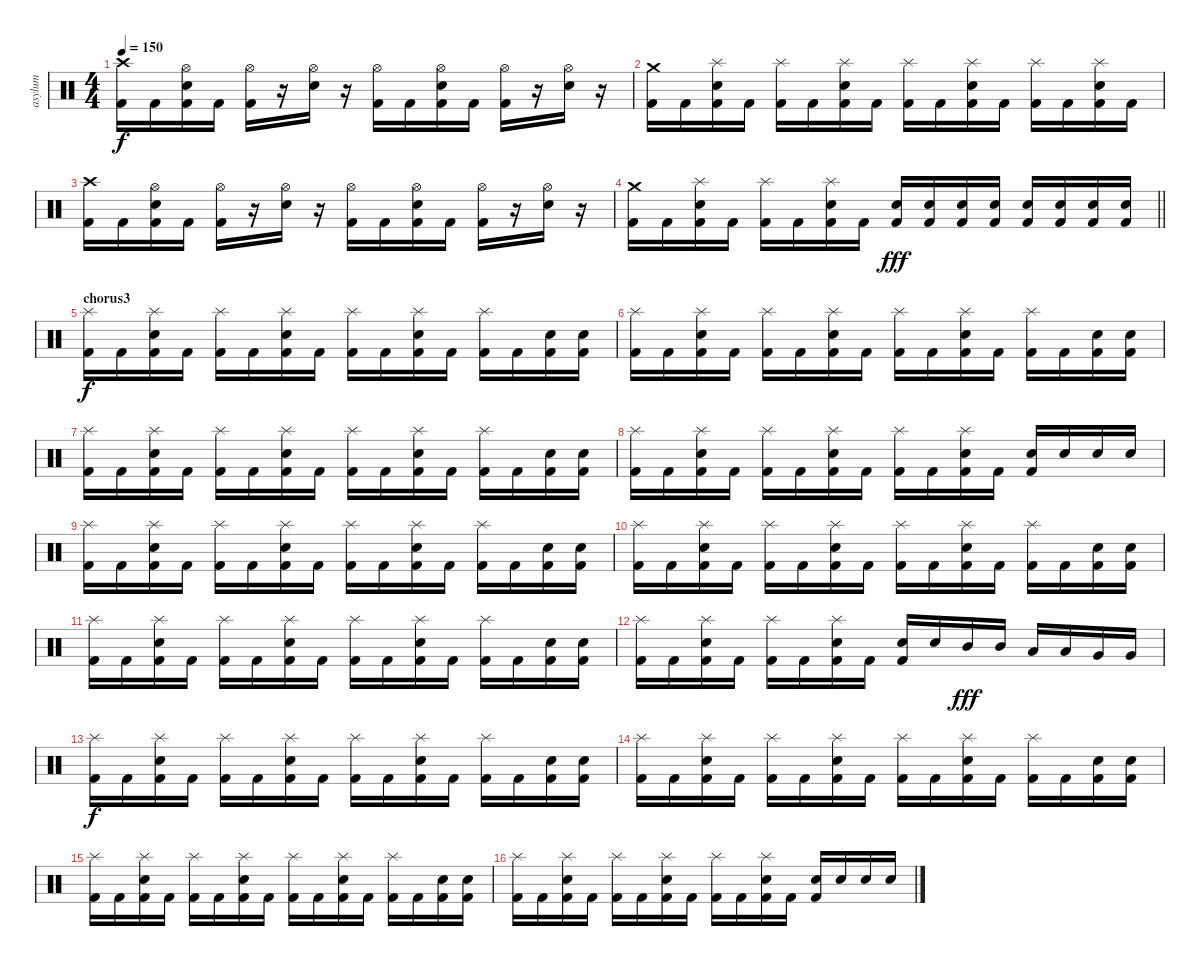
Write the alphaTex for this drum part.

\track ("asylum" "asylum") {instrument percussion}
\staff {score}
\articulation defaults
\ts (4 4)
\tempo 150
\clef neutral
\ks c
("Crash high (hit)" "Kick (hit) 2").16{dy f} "Kick (hit) 2".16 ("Hi-Hat (open)" "Electric Snare (hit)" "Kick (hit) 2").16 "Kick (hit) 2".16 ("Hi-Hat (open)" "Kick (hit) 2").16 r.16 ("Hi-Hat (open)" "Electric Snare (hit)").16 r.16 ("Hi-Hat (open)" "Kick (hit) 2").16 "Kick (hit) 2".16 ("Hi-Hat (open)" "Electric Snare (hit)" "Kick (hit) 2").16 "Kick (hit) 2".16 ("Hi-Hat (open)" "Kick (hit) 2").16 r.16 ("Hi-Hat (open)" "Electric Snare (hit)").16 r.16 |
("Crash medium (hit)" "Kick (hit) 2").16 "Kick (hit) 2".16 ("Splash (hit)" "Electric Snare (hit)" "Kick (hit) 2").16 "Kick (hit) 2".16 ("Splash (hit)" "Kick (hit) 2").16 "Kick (hit) 2".16 ("Splash (hit)" "Electric Snare (hit)" "Kick (hit) 2").16 "Kick (hit) 2".16 ("Splash (hit)" "Kick (hit) 2").16 "Kick (hit) 2".16 ("Splash (hit)" "Electric Snare (hit)" "Kick (hit) 2").16 "Kick (hit) 2".16 ("Splash (hit)" "Kick (hit) 2").16 "Kick (hit) 2".16 ("Splash (hit)" "Electric Snare (hit)" "Kick (hit) 2").16 "Kick (hit) 2".16 |
("Crash high (hit)" "Kick (hit) 2").16 "Kick (hit) 2".16 ("Hi-Hat (open)" "Electric Snare (hit)" "Kick (hit) 2").16 "Kick (hit) 2".16 ("Hi-Hat (open)" "Kick (hit) 2").16 r.16 ("Hi-Hat (open)" "Electric Snare (hit)").16 r.16 ("Hi-Hat (open)" "Kick (hit) 2").16 "Kick (hit) 2".16 ("Hi-Hat (open)" "Electric Snare (hit)" "Kick (hit) 2").16 "Kick (hit) 2".16 ("Hi-Hat (open)" "Kick (hit) 2").16 r.16 ("Hi-Hat (open)" "Electric Snare (hit)").16 r.16 |
\barLineRight lightlight
("Crash medium (hit)" "Kick (hit) 2").16 "Kick (hit) 2".16 ("Splash (hit)" "Electric Snare (hit)" "Kick (hit) 2").16 "Kick (hit) 2".16 ("Splash (hit)" "Kick (hit) 2").16 "Kick (hit) 2".16 ("Splash (hit)" "Electric Snare (hit)" "Kick (hit) 2").16 "Kick (hit) 2".16 ("Electric Snare (hit)" "Kick (hit) 2").16{dy fff} ("Electric Snare (hit)" "Kick (hit) 2").16 ("Electric Snare (hit)" "Kick (hit) 2").16 ("Electric Snare (hit)" "Kick (hit) 2").16 ("Electric Snare (hit)" "Kick (hit) 2").16 ("Electric Snare (hit)" "Kick (hit) 2").16 ("Electric Snare (hit)" "Kick (hit) 2").16 ("Electric Snare (hit)" "Kick (hit) 2").16 |
\section ("" "chorus3")
("Splash (hit)" "Kick (hit) 2").16{dy f} "Kick (hit) 2".16 ("Splash (hit)" "Electric Snare (hit)" "Kick (hit) 2").16 "Kick (hit) 2".16 ("Splash (hit)" "Kick (hit) 2").16 "Kick (hit) 2".16 ("Splash (hit)" "Electric Snare (hit)" "Kick (hit) 2").16 "Kick (hit) 2".16 ("Splash (hit)" "Kick (hit) 2").16 "Kick (hit) 2".16 ("Splash (hit)" "Electric Snare (hit)" "Kick (hit) 2").16 "Kick (hit) 2".16 ("Splash (hit)" "Kick (hit) 2").16 "Kick (hit) 2".16 ("Electric Snare (hit)" "Kick (hit) 2").16 ("Electric Snare (hit)" "Kick (hit) 2").16 |
("Splash (hit)" "Kick (hit) 2").16 "Kick (hit) 2".16 ("Splash (hit)" "Electric Snare (hit)" "Kick (hit) 2").16 "Kick (hit) 2".16 ("Splash (hit)" "Kick (hit) 2").16 "Kick (hit) 2".16 ("Splash (hit)" "Electric Snare (hit)" "Kick (hit) 2").16 "Kick (hit) 2".16 ("Splash (hit)" "Kick (hit) 2").16 "Kick (hit) 2".16 ("Splash (hit)" "Electric Snare (hit)" "Kick (hit) 2").16 "Kick (hit) 2".16 ("Splash (hit)" "Kick (hit) 2").16 "Kick (hit) 2".16 ("Electric Snare (hit)" "Kick (hit) 2").16 ("Electric Snare (hit)" "Kick (hit) 2").16 |
("Splash (hit)" "Kick (hit) 2").16 "Kick (hit) 2".16 ("Splash (hit)" "Electric Snare (hit)" "Kick (hit) 2").16 "Kick (hit) 2".16 ("Splash (hit)" "Kick (hit) 2").16 "Kick (hit) 2".16 ("Splash (hit)" "Electric Snare (hit)" "Kick (hit) 2").16 "Kick (hit) 2".16 ("Splash (hit)" "Kick (hit) 2").16 "Kick (hit) 2".16 ("Splash (hit)" "Electric Snare (hit)" "Kick (hit) 2").16 "Kick (hit) 2".16 ("Splash (hit)" "Kick (hit) 2").16 "Kick (hit) 2".16 ("Electric Snare (hit)" "Kick (hit) 2").16 ("Electric Snare (hit)" "Kick (hit) 2").16 |
("Splash (hit)" "Kick (hit) 2").16 "Kick (hit) 2".16 ("Splash (hit)" "Electric Snare (hit)" "Kick (hit) 2").16 "Kick (hit) 2".16 ("Splash (hit)" "Kick (hit) 2").16 "Kick (hit) 2".16 ("Splash (hit)" "Electric Snare (hit)" "Kick (hit) 2").16 "Kick (hit) 2".16 ("Splash (hit)" "Kick (hit) 2").16 "Kick (hit) 2".16 ("Splash (hit)" "Electric Snare (hit)" "Kick (hit) 2").16 "Kick (hit) 2".16 ("Electric Snare (hit)" "Kick (hit) 2").16 "Electric Snare (hit)".16 "Electric Snare (hit)".16 "Electric Snare (hit)".16 |
("Splash (hit)" "Kick (hit) 2").16 "Kick (hit) 2".16 ("Splash (hit)" "Electric Snare (hit)" "Kick (hit) 2").16 "Kick (hit) 2".16 ("Splash (hit)" "Kick (hit) 2").16 "Kick (hit) 2".16 ("Splash (hit)" "Electric Snare (hit)" "Kick (hit) 2").16 "Kick (hit) 2".16 ("Splash (hit)" "Kick (hit) 2").16 "Kick (hit) 2".16 ("Splash (hit)" "Electric Snare (hit)" "Kick (hit) 2").16 "Kick (hit) 2".16 ("Splash (hit)" "Kick (hit) 2").16 "Kick (hit) 2".16 ("Electric Snare (hit)" "Kick (hit) 2").16 ("Electric Snare (hit)" "Kick (hit) 2").16 |
("Splash (hit)" "Kick (hit) 2").16 "Kick (hit) 2".16 ("Splash (hit)" "Electric Snare (hit)" "Kick (hit) 2").16 "Kick (hit) 2".16 ("Splash (hit)" "Kick (hit) 2").16 "Kick (hit) 2".16 ("Splash (hit)" "Electric Snare (hit)" "Kick (hit) 2").16 "Kick (hit) 2".16 ("Splash (hit)" "Kick (hit) 2").16 "Kick (hit) 2".16 ("Splash (hit)" "Electric Snare (hit)" "Kick (hit) 2").16 "Kick (hit) 2".16 ("Splash (hit)" "Kick (hit) 2").16 "Kick (hit) 2".16 ("Electric Snare (hit)" "Kick (hit) 2").16 ("Electric Snare (hit)" "Kick (hit) 2").16 |
("Splash (hit)" "Kick (hit) 2").16 "Kick (hit) 2".16 ("Splash (hit)" "Electric Snare (hit)" "Kick (hit) 2").16 "Kick (hit) 2".16 ("Splash (hit)" "Kick (hit) 2").16 "Kick (hit) 2".16 ("Splash (hit)" "Electric Snare (hit)" "Kick (hit) 2").16 "Kick (hit) 2".16 ("Splash (hit)" "Kick (hit) 2").16 "Kick (hit) 2".16 ("Splash (hit)" "Electric Snare (hit)" "Kick (hit) 2").16 "Kick (hit) 2".16 ("Splash (hit)" "Kick (hit) 2").16 "Kick (hit) 2".16 ("Electric Snare (hit)" "Kick (hit) 2").16 ("Electric Snare (hit)" "Kick (hit) 2").16 |
("Splash (hit)" "Kick (hit) 2").16 "Kick (hit) 2".16 ("Splash (hit)" "Electric Snare (hit)" "Kick (hit) 2").16 "Kick (hit) 2".16 ("Splash (hit)" "Kick (hit) 2").16 "Kick (hit) 2".16 ("Splash (hit)" "Electric Snare (hit)" "Kick (hit) 2").16 "Kick (hit) 2".16 ("Electric Snare (hit)" "Kick (hit) 2").16 "Electric Snare (hit)".16 "Mid Tom (hit)".16{dy fff} "Mid Tom (hit)".16 "Low Tom (hit)".16 "Low Tom (hit)".16 "Very Low Tom (hit)".16 "Very Low Tom (hit)".16 |
("Splash (hit)" "Kick (hit) 2").16{dy f} "Kick (hit) 2".16 ("Splash (hit)" "Electric Snare (hit)" "Kick (hit) 2").16 "Kick (hit) 2".16 ("Splash (hit)" "Kick (hit) 2").16 "Kick (hit) 2".16 ("Splash (hit)" "Electric Snare (hit)" "Kick (hit) 2").16 "Kick (hit) 2".16 ("Splash (hit)" "Kick (hit) 2").16 "Kick (hit) 2".16 ("Splash (hit)" "Electric Snare (hit)" "Kick (hit) 2").16 "Kick (hit) 2".16 ("Splash (hit)" "Kick (hit) 2").16 "Kick (hit) 2".16 ("Electric Snare (hit)" "Kick (hit) 2").16 ("Electric Snare (hit)" "Kick (hit) 2").16 |
("Splash (hit)" "Kick (hit) 2").16 "Kick (hit) 2".16 ("Splash (hit)" "Electric Snare (hit)" "Kick (hit) 2").16 "Kick (hit) 2".16 ("Splash (hit)" "Kick (hit) 2").16 "Kick (hit) 2".16 ("Splash (hit)" "Electric Snare (hit)" "Kick (hit) 2").16 "Kick (hit) 2".16 ("Splash (hit)" "Kick (hit) 2").16 "Kick (hit) 2".16 ("Splash (hit)" "Electric Snare (hit)" "Kick (hit) 2").16 "Kick (hit) 2".16 ("Splash (hit)" "Kick (hit) 2").16 "Kick (hit) 2".16 ("Electric Snare (hit)" "Kick (hit) 2").16 ("Electric Snare (hit)" "Kick (hit) 2").16 |
("Splash (hit)" "Kick (hit) 2").16 "Kick (hit) 2".16 ("Splash (hit)" "Electric Snare (hit)" "Kick (hit) 2").16 "Kick (hit) 2".16 ("Splash (hit)" "Kick (hit) 2").16 "Kick (hit) 2".16 ("Splash (hit)" "Electric Snare (hit)" "Kick (hit) 2").16 "Kick (hit) 2".16 ("Splash (hit)" "Kick (hit) 2").16 "Kick (hit) 2".16 ("Splash (hit)" "Electric Snare (hit)" "Kick (hit) 2").16 "Kick (hit) 2".16 ("Splash (hit)" "Kick (hit) 2").16 "Kick (hit) 2".16 ("Electric Snare (hit)" "Kick (hit) 2").16 ("Electric Snare (hit)" "Kick (hit) 2").16 |
("Splash (hit)" "Kick (hit) 2").16 "Kick (hit) 2".16 ("Splash (hit)" "Electric Snare (hit)" "Kick (hit) 2").16 "Kick (hit) 2".16 ("Splash (hit)" "Kick (hit) 2").16 "Kick (hit) 2".16 ("Splash (hit)" "Electric Snare (hit)" "Kick (hit) 2").16 "Kick (hit) 2".16 ("Splash (hit)" "Kick (hit) 2").16 "Kick (hit) 2".16 ("Splash (hit)" "Electric Snare (hit)" "Kick (hit) 2").16 "Kick (hit) 2".16 ("Electric Snare (hit)" "Kick (hit) 2").16 "Electric Snare (hit)".16 "Electric Snare (hit)".16 "Electric Snare (hit)".16
